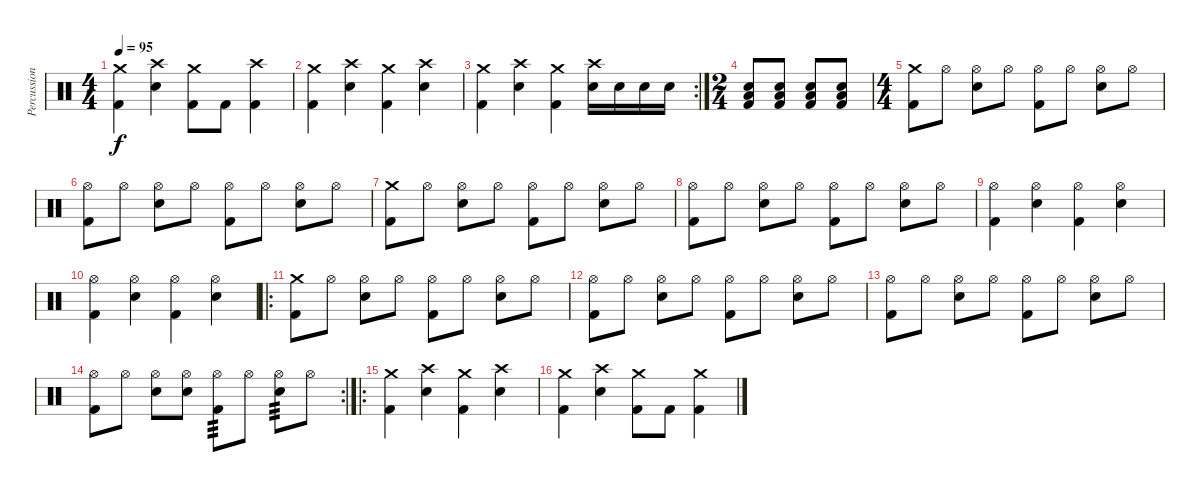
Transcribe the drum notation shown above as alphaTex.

\track ("Percussion" "Percussion") {instrument percussion}
\staff {score}
\articulation defaults
\ts (4 4)
\tempo 95
\clef neutral
\ks c
("Crash medium (hit)" "Kick (hit) 2").4{dy f} ("Crash high (hit)" "Electric Snare (hit)").4 ("Crash medium (hit)" "Kick (hit) 2").8 "Kick (hit) 2".8 ("Crash high (hit)" "Kick (hit) 2").4 |
("Crash medium (hit)" "Kick (hit) 2").4 ("Crash high (hit)" "Electric Snare (hit)").4 ("Crash medium (hit)" "Kick (hit) 2").4 ("Crash high (hit)" "Electric Snare (hit)").4 |
\rc 2
("Crash medium (hit)" "Kick (hit) 2").4 ("Crash high (hit)" "Electric Snare (hit)").4 ("Crash medium (hit)" "Kick (hit) 2").4 ("Crash high (hit)" "Electric Snare (hit)").16 "Electric Snare (hit)".16 "Electric Snare (hit)".16 "Electric Snare (hit)".16 |
\ts (2 4)
("Low Floor Tom (hit)" "Electric Snare (hit)" "Kick (hit) 2").8 ("Low Floor Tom (hit)" "Electric Snare (hit)" "Kick (hit) 2").8 ("Low Floor Tom (hit)" "Electric Snare (hit)" "Kick (hit) 2").8 ("Low Floor Tom (hit)" "Electric Snare (hit)" "Kick (hit) 2").8 |
\ts (4 4)
("Crash medium (hit)" "Kick (hit) 2").8 "Hi-Hat (open)".8 ("Hi-Hat (open)" "Electric Snare (hit)").8 "Hi-Hat (open)".8 ("Hi-Hat (open)" "Kick (hit) 2").8 "Hi-Hat (open)".8 ("Hi-Hat (open)" "Electric Snare (hit)").8 "Hi-Hat (open)".8 |
("Hi-Hat (open)" "Kick (hit) 2").8 "Hi-Hat (open)".8 ("Hi-Hat (open)" "Electric Snare (hit)").8 "Hi-Hat (open)".8 ("Hi-Hat (open)" "Kick (hit) 2").8 "Hi-Hat (open)".8 ("Hi-Hat (open)" "Electric Snare (hit)").8 "Hi-Hat (open)".8 |
("Crash medium (hit)" "Kick (hit) 2").8 "Hi-Hat (open)".8 ("Hi-Hat (open)" "Electric Snare (hit)").8 "Hi-Hat (open)".8 ("Hi-Hat (open)" "Kick (hit) 2").8 "Hi-Hat (open)".8 ("Hi-Hat (open)" "Electric Snare (hit)").8 "Hi-Hat (open)".8 |
("Hi-Hat (open)" "Kick (hit) 2").8 "Hi-Hat (open)".8 ("Hi-Hat (open)" "Electric Snare (hit)").8 "Hi-Hat (open)".8 ("Hi-Hat (open)" "Kick (hit) 2").8 "Hi-Hat (open)".8 ("Hi-Hat (open)" "Electric Snare (hit)").8 "Hi-Hat (open)".8 |
("Hi-Hat (open)" "Kick (hit) 2").4 ("Hi-Hat (open)" "Electric Snare (hit)").4 ("Hi-Hat (open)" "Kick (hit) 2").4 ("Hi-Hat (open)" "Electric Snare (hit)").4 |
("Hi-Hat (open)" "Kick (hit) 2").4 ("Hi-Hat (open)" "Electric Snare (hit)").4 ("Hi-Hat (open)" "Kick (hit) 2").4 ("Hi-Hat (open)" "Electric Snare (hit)").4 |
\ro
("Crash medium (hit)" "Kick (hit) 2").8 "Hi-Hat (open)".8 ("Hi-Hat (open)" "Electric Snare (hit)").8 "Hi-Hat (open)".8 ("Hi-Hat (open)" "Kick (hit) 2").8 "Hi-Hat (open)".8 ("Hi-Hat (open)" "Electric Snare (hit)").8 "Hi-Hat (open)".8 |
("Hi-Hat (open)" "Kick (hit) 2").8 "Hi-Hat (open)".8 ("Hi-Hat (open)" "Electric Snare (hit)").8 "Hi-Hat (open)".8 ("Hi-Hat (open)" "Kick (hit) 2").8 "Hi-Hat (open)".8 ("Hi-Hat (open)" "Electric Snare (hit)").8 "Hi-Hat (open)".8 |
("Hi-Hat (open)" "Kick (hit) 2").8 "Hi-Hat (open)".8 ("Hi-Hat (open)" "Electric Snare (hit)").8 "Hi-Hat (open)".8 ("Hi-Hat (open)" "Kick (hit) 2").8 "Hi-Hat (open)".8 ("Hi-Hat (open)" "Electric Snare (hit)").8 "Hi-Hat (open)".8 |
\rc 2
("Hi-Hat (open)" "Kick (hit) 2").8 "Hi-Hat (open)".8 ("Hi-Hat (open)" "Electric Snare (hit)").8 ("Hi-Hat (open)" "Snare (hit)").8 ("Hi-Hat (open)" "Kick (hit) 2").8{tp 3} "Hi-Hat (open)".8 ("Hi-Hat (open)" "Electric Snare (hit)").8{tp 3} "Hi-Hat (open)".8 |
\ro
("Crash medium (hit)" "Kick (hit) 2").4 ("Crash high (hit)" "Electric Snare (hit)").4 ("Crash medium (hit)" "Kick (hit) 2").4 ("Crash high (hit)" "Electric Snare (hit)").4 |
("Crash medium (hit)" "Kick (hit) 2").4 ("Crash high (hit)" "Electric Snare (hit)").4 ("Crash medium (hit)" "Kick (hit) 2").8 "Kick (hit) 2".8 ("Crash medium (hit)" "Kick (hit) 2").4
